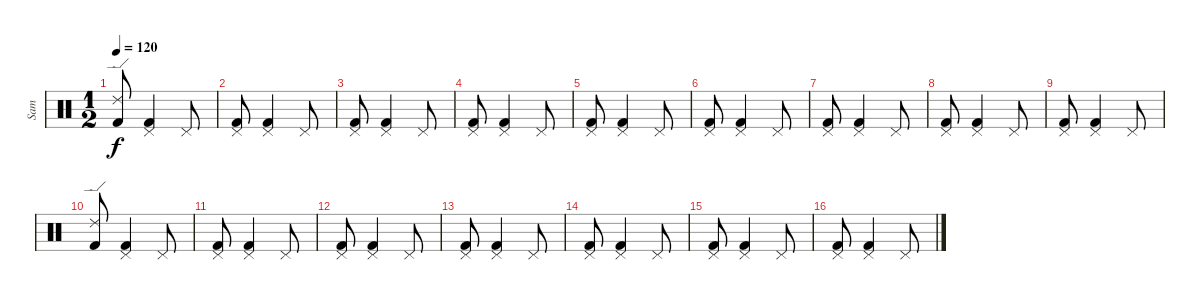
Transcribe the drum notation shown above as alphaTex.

\track ("Sam" "Sam") {instrument percussion}
\staff {score}
\articulation defaults
\ts (1 2)
\tempo 120
\clef neutral
\ks c
("Ride (edge) 2" "Kick (hit) 2").8{dy f} ("Pedal Hi-Hat (hit)" "Kick (hit) 2").4 "Pedal Hi-Hat (hit)".8 |
("Pedal Hi-Hat (hit)" "Kick (hit) 2").8 ("Pedal Hi-Hat (hit)" "Kick (hit) 2").4 "Pedal Hi-Hat (hit)".8 |
("Pedal Hi-Hat (hit)" "Kick (hit) 2").8 ("Pedal Hi-Hat (hit)" "Kick (hit) 2").4 "Pedal Hi-Hat (hit)".8 |
("Pedal Hi-Hat (hit)" "Kick (hit) 2").8 ("Pedal Hi-Hat (hit)" "Kick (hit) 2").4 "Pedal Hi-Hat (hit)".8 |
("Pedal Hi-Hat (hit)" "Kick (hit) 2").8 ("Pedal Hi-Hat (hit)" "Kick (hit) 2").4 "Pedal Hi-Hat (hit)".8 |
("Pedal Hi-Hat (hit)" "Kick (hit) 2").8 ("Pedal Hi-Hat (hit)" "Kick (hit) 2").4 "Pedal Hi-Hat (hit)".8 |
("Pedal Hi-Hat (hit)" "Kick (hit) 2").8 ("Pedal Hi-Hat (hit)" "Kick (hit) 2").4 "Pedal Hi-Hat (hit)".8 |
("Pedal Hi-Hat (hit)" "Kick (hit) 2").8 ("Pedal Hi-Hat (hit)" "Kick (hit) 2").4 "Pedal Hi-Hat (hit)".8 |
("Pedal Hi-Hat (hit)" "Kick (hit) 2").8 ("Pedal Hi-Hat (hit)" "Kick (hit) 2").4 "Pedal Hi-Hat (hit)".8 |
("Ride (edge) 2" "Kick (hit) 2").8 ("Pedal Hi-Hat (hit)" "Kick (hit) 2").4 "Pedal Hi-Hat (hit)".8 |
("Pedal Hi-Hat (hit)" "Kick (hit) 2").8 ("Pedal Hi-Hat (hit)" "Kick (hit) 2").4 "Pedal Hi-Hat (hit)".8 |
("Pedal Hi-Hat (hit)" "Kick (hit) 2").8 ("Pedal Hi-Hat (hit)" "Kick (hit) 2").4 "Pedal Hi-Hat (hit)".8 |
("Pedal Hi-Hat (hit)" "Kick (hit) 2").8 ("Pedal Hi-Hat (hit)" "Kick (hit) 2").4 "Pedal Hi-Hat (hit)".8 |
("Pedal Hi-Hat (hit)" "Kick (hit) 2").8 ("Pedal Hi-Hat (hit)" "Kick (hit) 2").4 "Pedal Hi-Hat (hit)".8 |
("Pedal Hi-Hat (hit)" "Kick (hit) 2").8 ("Pedal Hi-Hat (hit)" "Kick (hit) 2").4 "Pedal Hi-Hat (hit)".8 |
("Pedal Hi-Hat (hit)" "Kick (hit) 2").8 ("Pedal Hi-Hat (hit)" "Kick (hit) 2").4 "Pedal Hi-Hat (hit)".8
